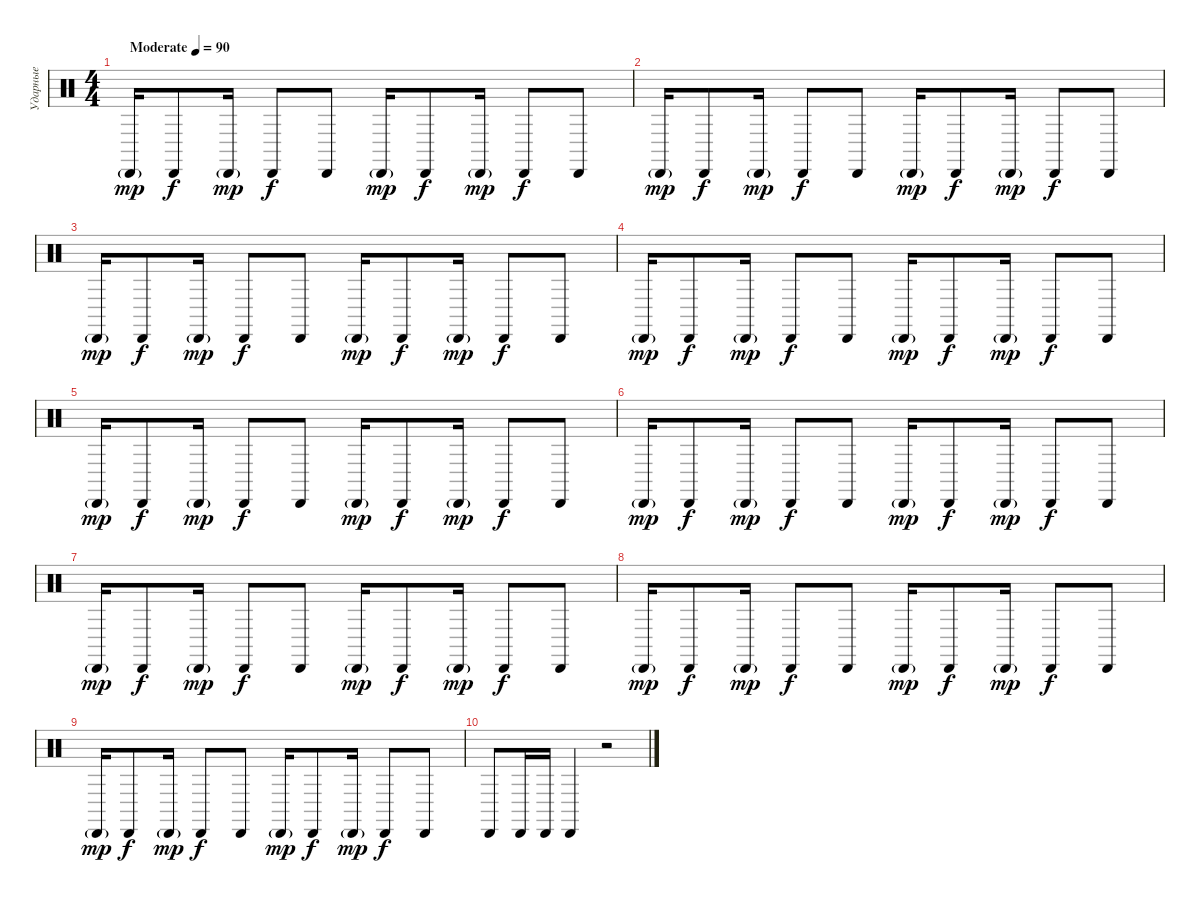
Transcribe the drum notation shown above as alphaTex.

\track ("Ударные" "Ударные") {instrument percussion}
\staff {score}
\articulation defaults
\ts (4 4)
\tempo (90 "Moderate")
\clef neutral
\ks c "Cabasa (hit)"{g}.16{dy mp} "Cabasa (hit)".8{dy f} "Cabasa (hit)"{g}.16{dy mp} "Cabasa (hit)".8{dy f} "Cabasa (hit)".8 "Cabasa (hit)"{g}.16{dy mp} "Cabasa (hit)".8{dy f} "Cabasa (hit)"{g}.16{dy mp} "Cabasa (hit)".8{dy f} "Cabasa (hit)".8
|
"Cabasa (hit)"{g}.16{dy mp} "Cabasa (hit)".8{dy f} "Cabasa (hit)"{g}.16{dy mp} "Cabasa (hit)".8{dy f} "Cabasa (hit)".8 "Cabasa (hit)"{g}.16{dy mp} "Cabasa (hit)".8{dy f} "Cabasa (hit)"{g}.16{dy mp} "Cabasa (hit)".8{dy f} "Cabasa (hit)".8 |
"Cabasa (hit)"{g}.16{dy mp} "Cabasa (hit)".8{dy f} "Cabasa (hit)"{g}.16{dy mp} "Cabasa (hit)".8{dy f} "Cabasa (hit)".8 "Cabasa (hit)"{g}.16{dy mp} "Cabasa (hit)".8{dy f} "Cabasa (hit)"{g}.16{dy mp} "Cabasa (hit)".8{dy f} "Cabasa (hit)".8 |
"Cabasa (hit)"{g}.16{dy mp} "Cabasa (hit)".8{dy f} "Cabasa (hit)"{g}.16{dy mp} "Cabasa (hit)".8{dy f} "Cabasa (hit)".8 "Cabasa (hit)"{g}.16{dy mp} "Cabasa (hit)".8{dy f} "Cabasa (hit)"{g}.16{dy mp} "Cabasa (hit)".8{dy f} "Cabasa (hit)".8 |
"Cabasa (hit)"{g}.16{dy mp} "Cabasa (hit)".8{dy f} "Cabasa (hit)"{g}.16{dy mp} "Cabasa (hit)".8{dy f} "Cabasa (hit)".8 "Cabasa (hit)"{g}.16{dy mp} "Cabasa (hit)".8{dy f} "Cabasa (hit)"{g}.16{dy mp} "Cabasa (hit)".8{dy f} "Cabasa (hit)".8 |
"Cabasa (hit)"{g}.16{dy mp} "Cabasa (hit)".8{dy f} "Cabasa (hit)"{g}.16{dy mp} "Cabasa (hit)".8{dy f} "Cabasa (hit)".8 "Cabasa (hit)"{g}.16{dy mp} "Cabasa (hit)".8{dy f} "Cabasa (hit)"{g}.16{dy mp} "Cabasa (hit)".8{dy f} "Cabasa (hit)".8 |
"Cabasa (hit)"{g}.16{dy mp} "Cabasa (hit)".8{dy f} "Cabasa (hit)"{g}.16{dy mp} "Cabasa (hit)".8{dy f} "Cabasa (hit)".8 "Cabasa (hit)"{g}.16{dy mp} "Cabasa (hit)".8{dy f} "Cabasa (hit)"{g}.16{dy mp} "Cabasa (hit)".8{dy f} "Cabasa (hit)".8 |
"Cabasa (hit)"{g}.16{dy mp} "Cabasa (hit)".8{dy f} "Cabasa (hit)"{g}.16{dy mp} "Cabasa (hit)".8{dy f} "Cabasa (hit)".8 "Cabasa (hit)"{g}.16{dy mp} "Cabasa (hit)".8{dy f} "Cabasa (hit)"{g}.16{dy mp} "Cabasa (hit)".8{dy f} "Cabasa (hit)".8 |
"Cabasa (hit)"{g}.16{dy mp} "Cabasa (hit)".8{dy f} "Cabasa (hit)"{g}.16{dy mp} "Cabasa (hit)".8{dy f} "Cabasa (hit)".8 "Cabasa (hit)"{g}.16{dy mp} "Cabasa (hit)".8{dy f} "Cabasa (hit)"{g}.16{dy mp} "Cabasa (hit)".8{dy f} "Cabasa (hit)".8 |
"Cabasa (hit)".8 "Cabasa (hit)".16 "Cabasa (hit)".16 "Cabasa (hit)".4 r.2
